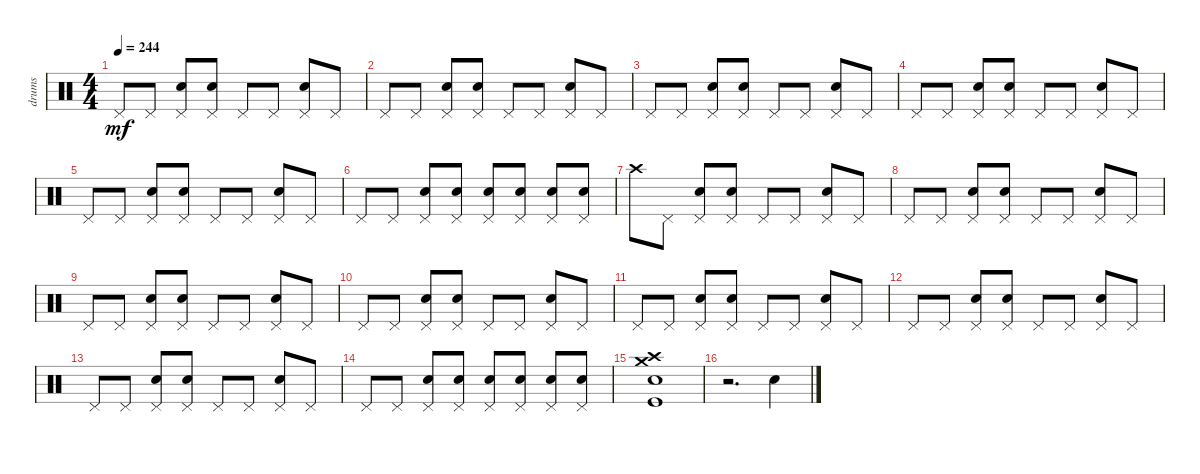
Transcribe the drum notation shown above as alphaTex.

\track ("drums" "drums") {instrument percussion}
\staff {score}
\articulation defaults
\ts (4 4)
\tempo 244
\clef neutral
\ks c "Pedal Hi-Hat (hit)".8{dy mf} "Pedal Hi-Hat (hit)".8
("Pedal Hi-Hat (hit)" "Snare (hit) 2").8 ("Pedal Hi-Hat (hit)" "Snare (hit) 2").8 "Pedal Hi-Hat (hit)".8 "Pedal Hi-Hat (hit)".8 ("Pedal Hi-Hat (hit)" "Snare (hit) 2").8 "Pedal Hi-Hat (hit)".8 |
"Pedal Hi-Hat (hit)".8 "Pedal Hi-Hat (hit)".8 ("Pedal Hi-Hat (hit)" "Snare (hit) 2").8 ("Pedal Hi-Hat (hit)" "Snare (hit) 2").8 "Pedal Hi-Hat (hit)".8 "Pedal Hi-Hat (hit)".8 ("Pedal Hi-Hat (hit)" "Snare (hit) 2").8 "Pedal Hi-Hat (hit)".8 |
"Pedal Hi-Hat (hit)".8 "Pedal Hi-Hat (hit)".8 ("Pedal Hi-Hat (hit)" "Snare (hit) 2").8 ("Pedal Hi-Hat (hit)" "Snare (hit) 2").8 "Pedal Hi-Hat (hit)".8 "Pedal Hi-Hat (hit)".8 ("Pedal Hi-Hat (hit)" "Snare (hit) 2").8 "Pedal Hi-Hat (hit)".8 |
"Pedal Hi-Hat (hit)".8 "Pedal Hi-Hat (hit)".8 ("Pedal Hi-Hat (hit)" "Snare (hit) 2").8 ("Pedal Hi-Hat (hit)" "Snare (hit) 2").8 "Pedal Hi-Hat (hit)".8 "Pedal Hi-Hat (hit)".8 ("Pedal Hi-Hat (hit)" "Snare (hit) 2").8 "Pedal Hi-Hat (hit)".8 |
"Pedal Hi-Hat (hit)".8 "Pedal Hi-Hat (hit)".8 ("Pedal Hi-Hat (hit)" "Snare (hit) 2").8 ("Pedal Hi-Hat (hit)" "Snare (hit) 2").8 "Pedal Hi-Hat (hit)".8 "Pedal Hi-Hat (hit)".8 ("Pedal Hi-Hat (hit)" "Snare (hit) 2").8 "Pedal Hi-Hat (hit)".8 |
"Pedal Hi-Hat (hit)".8 "Pedal Hi-Hat (hit)".8 ("Pedal Hi-Hat (hit)" "Snare (hit) 2").8 ("Pedal Hi-Hat (hit)" "Snare (hit) 2").8 ("Pedal Hi-Hat (hit)" "Snare (hit) 2").8 ("Pedal Hi-Hat (hit)" "Snare (hit) 2").8 ("Pedal Hi-Hat (hit)" "Snare (hit) 2").8 ("Pedal Hi-Hat (hit)" "Snare (hit) 2").8 |
"Crash high (hit)".8 "Pedal Hi-Hat (hit)".8 ("Pedal Hi-Hat (hit)" "Snare (hit) 2").8 ("Pedal Hi-Hat (hit)" "Snare (hit) 2").8 "Pedal Hi-Hat (hit)".8 "Pedal Hi-Hat (hit)".8 ("Pedal Hi-Hat (hit)" "Snare (hit) 2").8 "Pedal Hi-Hat (hit)".8 |
"Pedal Hi-Hat (hit)".8 "Pedal Hi-Hat (hit)".8 ("Pedal Hi-Hat (hit)" "Snare (hit) 2").8 ("Pedal Hi-Hat (hit)" "Snare (hit) 2").8 "Pedal Hi-Hat (hit)".8 "Pedal Hi-Hat (hit)".8 ("Pedal Hi-Hat (hit)" "Snare (hit) 2").8 "Pedal Hi-Hat (hit)".8 |
"Pedal Hi-Hat (hit)".8 "Pedal Hi-Hat (hit)".8 ("Pedal Hi-Hat (hit)" "Snare (hit) 2").8 ("Pedal Hi-Hat (hit)" "Snare (hit) 2").8 "Pedal Hi-Hat (hit)".8 "Pedal Hi-Hat (hit)".8 ("Pedal Hi-Hat (hit)" "Snare (hit) 2").8 "Pedal Hi-Hat (hit)".8 |
"Pedal Hi-Hat (hit)".8 "Pedal Hi-Hat (hit)".8 ("Pedal Hi-Hat (hit)" "Snare (hit) 2").8 ("Pedal Hi-Hat (hit)" "Snare (hit) 2").8 "Pedal Hi-Hat (hit)".8 "Pedal Hi-Hat (hit)".8 ("Pedal Hi-Hat (hit)" "Snare (hit) 2").8 "Pedal Hi-Hat (hit)".8 |
"Pedal Hi-Hat (hit)".8 "Pedal Hi-Hat (hit)".8 ("Pedal Hi-Hat (hit)" "Snare (hit) 2").8 ("Pedal Hi-Hat (hit)" "Snare (hit) 2").8 "Pedal Hi-Hat (hit)".8 "Pedal Hi-Hat (hit)".8 ("Pedal Hi-Hat (hit)" "Snare (hit) 2").8 "Pedal Hi-Hat (hit)".8 |
"Pedal Hi-Hat (hit)".8 "Pedal Hi-Hat (hit)".8 ("Pedal Hi-Hat (hit)" "Snare (hit) 2").8 ("Pedal Hi-Hat (hit)" "Snare (hit) 2").8 "Pedal Hi-Hat (hit)".8 "Pedal Hi-Hat (hit)".8 ("Pedal Hi-Hat (hit)" "Snare (hit) 2").8 "Pedal Hi-Hat (hit)".8 |
"Pedal Hi-Hat (hit)".8 "Pedal Hi-Hat (hit)".8 ("Pedal Hi-Hat (hit)" "Snare (hit) 2").8 ("Pedal Hi-Hat (hit)" "Snare (hit) 2").8 "Pedal Hi-Hat (hit)".8 "Pedal Hi-Hat (hit)".8 ("Pedal Hi-Hat (hit)" "Snare (hit) 2").8 "Pedal Hi-Hat (hit)".8 |
"Pedal Hi-Hat (hit)".8 "Pedal Hi-Hat (hit)".8 ("Pedal Hi-Hat (hit)" "Snare (hit) 2").8 ("Pedal Hi-Hat (hit)" "Snare (hit) 2").8 ("Pedal Hi-Hat (hit)" "Snare (hit) 2").8 ("Pedal Hi-Hat (hit)" "Snare (hit) 2").8 ("Pedal Hi-Hat (hit)" "Snare (hit) 2").8 ("Pedal Hi-Hat (hit)" "Snare (hit) 2").8 |
("Kick (hit)" "Snare (hit) 2" "Crash high (hit)" "Crash medium (hit)").1 |
r.2{d} "Snare (hit) 2".4
